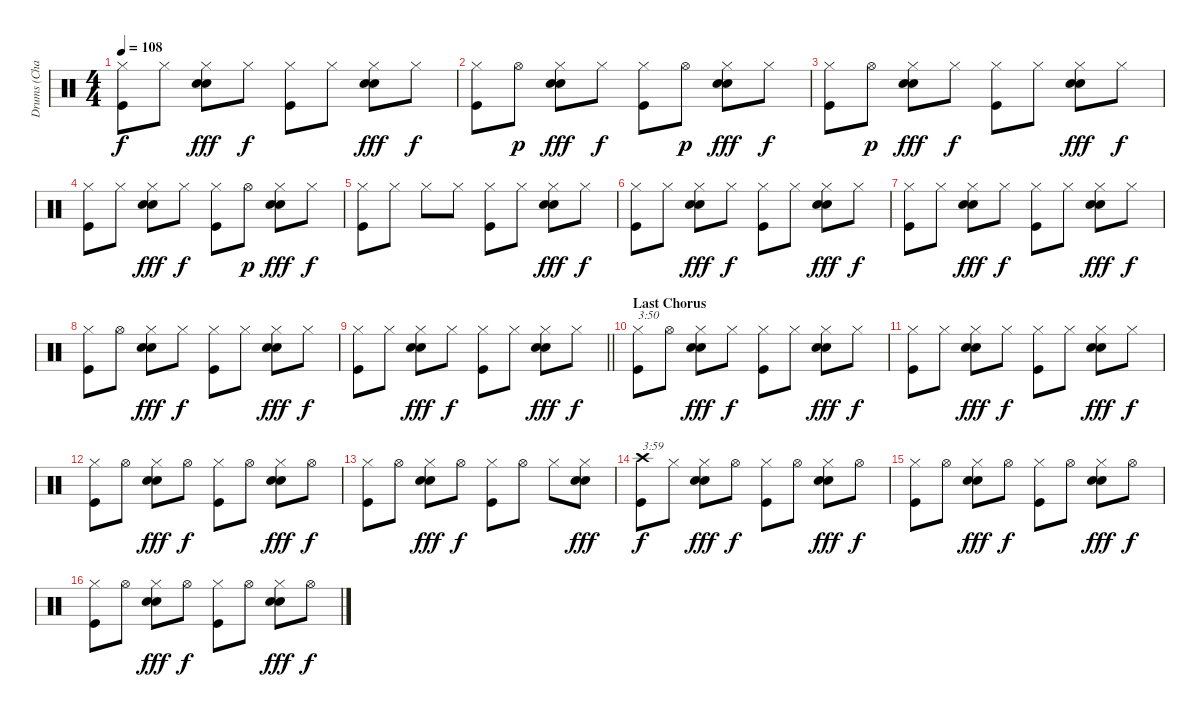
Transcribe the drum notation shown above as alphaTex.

\track ("Drums (Charlie)" "Drums (Cha") {instrument percussion}
\staff {score}
\articulation defaults
\ts (4 4)
\tempo 108
\clef neutral
\ks c
("Hi-Hat (closed)" "Kick (hit)").8{dy f} "Hi-Hat (closed)".8 ("Hi-Hat (closed)" "Snare (hit) 2" "Electric Snare (hit)").8{dy fff} "Hi-Hat (closed)".8{dy f} ("Hi-Hat (closed)" "Kick (hit)").8 "Hi-Hat (closed)".8 ("Hi-Hat (closed)" "Snare (hit) 2" "Electric Snare (hit)").8{dy fff} "Hi-Hat (closed)".8{dy f} |
("Hi-Hat (closed)" "Kick (hit)").8 "Hi-Hat (open)".8{dy p} ("Hi-Hat (closed)" "Snare (hit) 2" "Electric Snare (hit)").8{dy fff} "Hi-Hat (closed)".8{dy f} ("Hi-Hat (closed)" "Kick (hit)").8 "Hi-Hat (open)".8{dy p} ("Hi-Hat (closed)" "Snare (hit) 2" "Electric Snare (hit)").8{dy fff} "Hi-Hat (closed)".8{dy f} |
("Hi-Hat (closed)" "Kick (hit)").8 "Hi-Hat (open)".8{dy p} ("Hi-Hat (closed)" "Snare (hit) 2" "Electric Snare (hit)").8{dy fff} "Hi-Hat (closed)".8{dy f} ("Hi-Hat (closed)" "Kick (hit)").8 "Hi-Hat (closed)".8 ("Hi-Hat (closed)" "Snare (hit) 2" "Electric Snare (hit)").8{dy fff} "Hi-Hat (closed)".8{dy f} |
("Hi-Hat (closed)" "Kick (hit)").8 "Hi-Hat (closed)".8 ("Hi-Hat (closed)" "Snare (hit) 2" "Electric Snare (hit)").8{dy fff} "Hi-Hat (closed)".8{dy f} ("Hi-Hat (closed)" "Kick (hit)").8 "Hi-Hat (open)".8{dy p} ("Hi-Hat (closed)" "Snare (hit) 2" "Electric Snare (hit)").8{dy fff} "Hi-Hat (closed)".8{dy f} |
("Hi-Hat (closed)" "Kick (hit)").8 "Hi-Hat (closed)".8 "Hi-Hat (closed)".8 "Hi-Hat (closed)".8 ("Hi-Hat (closed)" "Kick (hit)").8 "Hi-Hat (closed)".8 ("Hi-Hat (closed)" "Snare (hit) 2" "Electric Snare (hit)").8{dy fff} "Hi-Hat (closed)".8{dy f} |
("Hi-Hat (closed)" "Kick (hit)").8 "Hi-Hat (closed)".8 ("Hi-Hat (closed)" "Snare (hit) 2" "Electric Snare (hit)").8{dy fff} "Hi-Hat (closed)".8{dy f} ("Hi-Hat (closed)" "Kick (hit)").8 "Hi-Hat (closed)".8 ("Hi-Hat (closed)" "Snare (hit) 2" "Electric Snare (hit)").8{dy fff} "Hi-Hat (closed)".8{dy f} |
("Hi-Hat (closed)" "Kick (hit)").8 "Hi-Hat (closed)".8 ("Hi-Hat (closed)" "Snare (hit) 2" "Electric Snare (hit)").8{dy fff} "Hi-Hat (closed)".8{dy f} ("Hi-Hat (closed)" "Kick (hit)").8 "Hi-Hat (closed)".8 ("Hi-Hat (closed)" "Snare (hit) 2" "Electric Snare (hit)").8{dy fff} "Hi-Hat (closed)".8{dy f} |
("Hi-Hat (closed)" "Kick (hit)").8 "Hi-Hat (open)".8 ("Hi-Hat (closed)" "Snare (hit) 2" "Electric Snare (hit)").8{dy fff} "Hi-Hat (closed)".8{dy f} ("Hi-Hat (closed)" "Kick (hit)").8 "Hi-Hat (closed)".8 ("Hi-Hat (closed)" "Snare (hit) 2" "Electric Snare (hit)").8{dy fff} "Hi-Hat (closed)".8{dy f} |
\barLineRight lightlight
("Hi-Hat (closed)" "Kick (hit)").8 "Hi-Hat (closed)".8 ("Hi-Hat (closed)" "Snare (hit) 2" "Electric Snare (hit)").8{dy fff} "Hi-Hat (closed)".8{dy f} ("Hi-Hat (closed)" "Kick (hit)").8 "Hi-Hat (closed)".8 ("Hi-Hat (closed)" "Snare (hit) 2" "Electric Snare (hit)").8{dy fff} "Hi-Hat (closed)".8{dy f} |
\section ("" "Last Chorus")
("Hi-Hat (closed)" "Kick (hit)").8{txt "3:50"} "Hi-Hat (open)".8 ("Hi-Hat (closed)" "Snare (hit) 2" "Electric Snare (hit)").8{dy fff} "Hi-Hat (closed)".8{dy f} ("Hi-Hat (closed)" "Kick (hit)").8 "Hi-Hat (closed)".8 ("Hi-Hat (closed)" "Snare (hit) 2" "Electric Snare (hit)").8{dy fff} "Hi-Hat (closed)".8{dy f} |
("Hi-Hat (closed)" "Kick (hit)").8 "Hi-Hat (closed)".8 ("Hi-Hat (closed)" "Snare (hit) 2" "Electric Snare (hit)").8{dy fff} "Hi-Hat (closed)".8{dy f} ("Hi-Hat (closed)" "Kick (hit)").8 "Hi-Hat (closed)".8 ("Hi-Hat (closed)" "Snare (hit) 2" "Electric Snare (hit)").8{dy fff} "Hi-Hat (closed)".8{dy f} |
("Hi-Hat (closed)" "Kick (hit)").8 "Hi-Hat (open)".8 ("Hi-Hat (closed)" "Snare (hit) 2" "Electric Snare (hit)").8{dy fff} "Hi-Hat (open)".8{dy f} ("Hi-Hat (closed)" "Kick (hit)").8 "Hi-Hat (open)".8 ("Hi-Hat (closed)" "Snare (hit) 2" "Electric Snare (hit)").8{dy fff} "Hi-Hat (open)".8{dy f} |
("Hi-Hat (closed)" "Kick (hit)").8 "Hi-Hat (open)".8 ("Hi-Hat (closed)" "Snare (hit) 2" "Electric Snare (hit)").8{dy fff} "Hi-Hat (open)".8{dy f} ("Hi-Hat (closed)" "Kick (hit)").8 "Hi-Hat (open)".8 "Hi-Hat (closed)".8 ("Hi-Hat (closed)" "Snare (hit) 2" "Electric Snare (hit)").8{dy fff} |
("Crash high (hit)" "Kick (hit)").8{txt "3:59" dy f} "Hi-Hat (closed)".8 ("Hi-Hat (closed)" "Snare (hit) 2" "Electric Snare (hit)").8{dy fff} "Hi-Hat (open)".8{dy f} ("Hi-Hat (closed)" "Kick (hit)").8 "Hi-Hat (open)".8 ("Hi-Hat (closed)" "Snare (hit) 2" "Electric Snare (hit)").8{dy fff} "Hi-Hat (open)".8{dy f} |
("Hi-Hat (closed)" "Kick (hit)").8 "Hi-Hat (open)".8 ("Hi-Hat (closed)" "Snare (hit) 2" "Electric Snare (hit)").8{dy fff} "Hi-Hat (open)".8{dy f} ("Hi-Hat (closed)" "Kick (hit)").8 "Hi-Hat (open)".8 ("Hi-Hat (closed)" "Snare (hit) 2" "Electric Snare (hit)").8{dy fff} "Hi-Hat (open)".8{dy f} |
("Hi-Hat (closed)" "Kick (hit)").8 "Hi-Hat (open)".8 ("Hi-Hat (closed)" "Snare (hit) 2" "Electric Snare (hit)").8{dy fff} "Hi-Hat (open)".8{dy f} ("Hi-Hat (closed)" "Kick (hit)").8 "Hi-Hat (open)".8 ("Hi-Hat (closed)" "Snare (hit) 2" "Electric Snare (hit)").8{dy fff} "Hi-Hat (open)".8{dy f}
